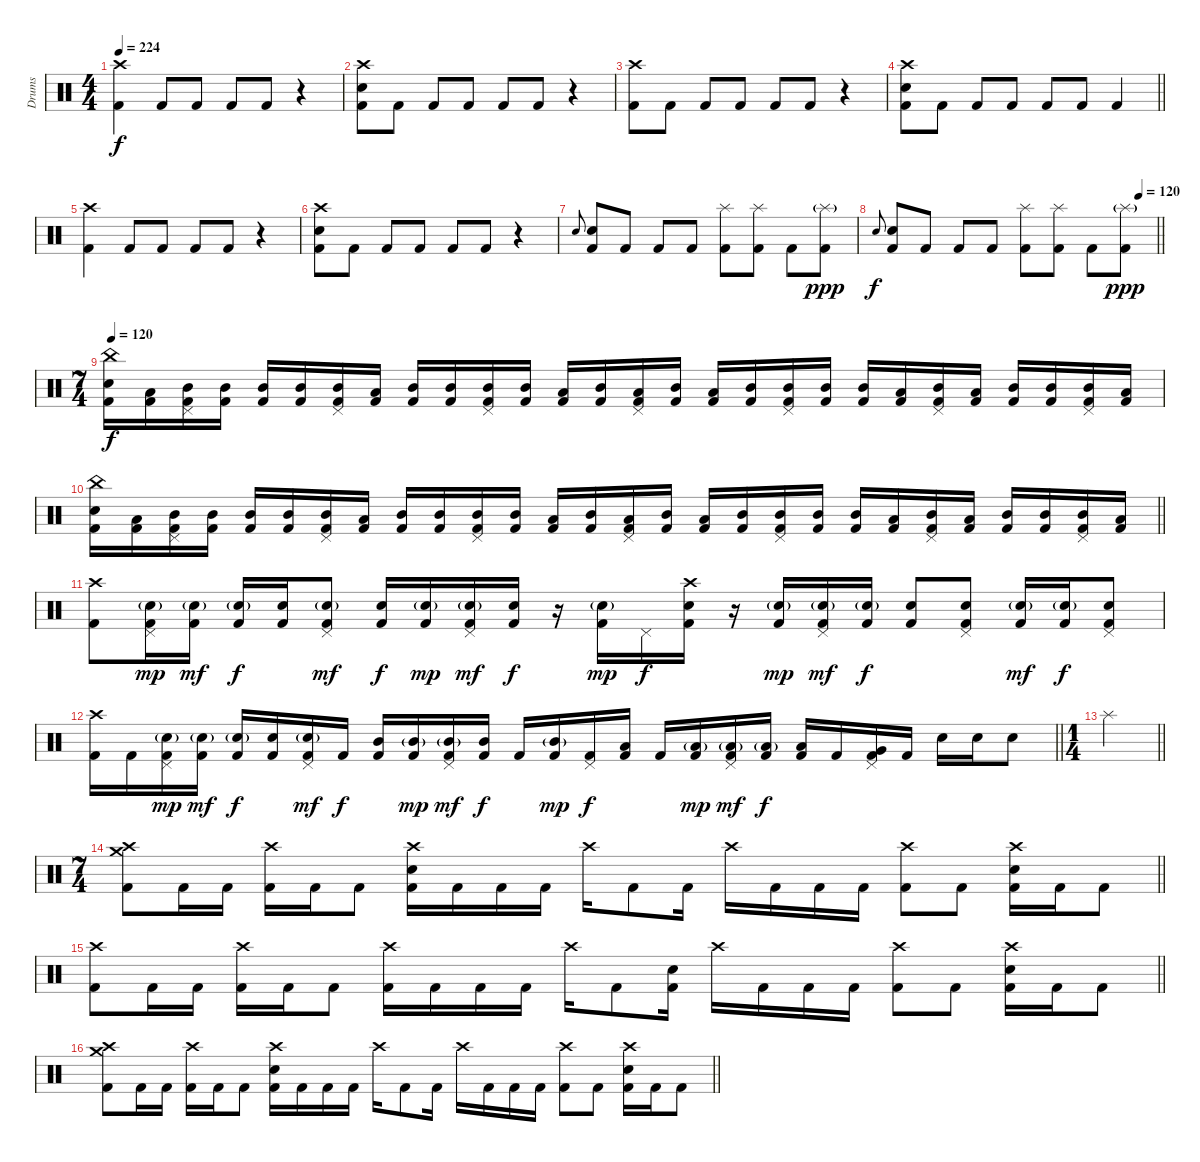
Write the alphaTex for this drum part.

\track ("Drums" "Drums") {instrument percussion}
\staff {score}
\articulation defaults
\ts (4 4)
\section ("" "")
\tempo 224
\clef neutral
\ks c
("Crash high (hit)" "Kick (hit) 2").4{dy f} "Kick (hit) 2".8 "Kick (hit) 2".8 "Kick (hit) 2".8 "Kick (hit) 2".8 r.4 |
("Crash high (hit)" "Electric Snare (hit)" "Kick (hit) 2").8 "Kick (hit) 2".8 "Kick (hit) 2".8 "Kick (hit) 2".8 "Kick (hit) 2".8 "Kick (hit) 2".8 r.4 |
("Crash high (hit)" "Kick (hit) 2").8 "Kick (hit) 2".8 "Kick (hit) 2".8 "Kick (hit) 2".8 "Kick (hit) 2".8 "Kick (hit) 2".8 r.4 |
\barLineRight lightlight
("Crash high (hit)" "Electric Snare (hit)" "Kick (hit) 2").8 "Kick (hit) 2".8 "Kick (hit) 2".8 "Kick (hit) 2".8 "Kick (hit) 2".8 "Kick (hit) 2".8 "Kick (hit) 2".4 |
("Crash high (hit)" "Kick (hit) 2").4 "Kick (hit) 2".8 "Kick (hit) 2".8 "Kick (hit) 2".8 "Kick (hit) 2".8 r.4 |
("Crash high (hit)" "Electric Snare (hit)" "Kick (hit) 2").8 "Kick (hit) 2".8 "Kick (hit) 2".8 "Kick (hit) 2".8 "Kick (hit) 2".8 "Kick (hit) 2".8 r.4 |
"Electric Snare (hit)".8{gr onbeat} ("Electric Snare (hit)" "Kick (hit) 2").8 "Kick (hit) 2".8 "Kick (hit) 2".8 "Kick (hit) 2".8 ("Splash (hit)" "Kick (hit) 2").8 ("Splash (hit)" "Kick (hit) 2").8 "Kick (hit) 2".8 ("Splash (hit)"{g} "Kick (hit) 2").8{dy ppp} |
\tempo (120 0.9375)
\barLineRight lightlight "Electric Snare (hit)".8{gr onbeat dy f}
("Electric Snare (hit)" "Kick (hit) 2").8 "Kick (hit) 2".8 "Kick (hit) 2".8 "Kick (hit) 2".8 ("Splash (hit)" "Kick (hit) 2").8 ("Splash (hit)" "Kick (hit) 2").8 "Kick (hit) 2".8 ("Splash (hit)"{g} "Kick (hit) 2").8{dy ppp} |
\ts (7 4)
\section ("" "")
\tempo 120
("China (hit)" "Electric Snare (hit)" "Kick (hit) 2").16{dy f} ("Low Tom (hit)" "Kick (hit) 2").16 ("Pedal Hi-Hat (hit)" "Mid Tom (hit)" "Kick (hit) 2").16 ("Mid Tom (hit)" "Kick (hit) 2").16 ("Mid Tom (hit)" "Kick (hit) 2").16 ("Mid Tom (hit)" "Kick (hit) 2").16 ("Pedal Hi-Hat (hit)" "Mid Tom (hit)" "Kick (hit) 2").16 ("Low Tom (hit)" "Kick (hit) 2").16 ("Mid Tom (hit)" "Kick (hit) 2").16 ("Mid Tom (hit)" "Kick (hit) 2").16 ("Pedal Hi-Hat (hit)" "Mid Tom (hit)" "Kick (hit) 2").16 ("Mid Tom (hit)" "Kick (hit) 2").16 ("Low Tom (hit)" "Kick (hit) 2").16 ("Mid Tom (hit)" "Kick (hit) 2").16 ("Pedal Hi-Hat (hit)" "Low Tom (hit)" "Kick (hit) 2").16 ("Mid Tom (hit)" "Kick (hit) 2").16 ("Low Tom (hit)" "Kick (hit) 2").16 ("Mid Tom (hit)" "Kick (hit) 2").16 ("Pedal Hi-Hat (hit)" "Mid Tom (hit)" "Kick (hit) 2").16 ("Mid Tom (hit)" "Kick (hit) 2").16 ("Mid Tom (hit)" "Kick (hit) 2").16 ("Low Tom (hit)" "Kick (hit) 2").16 ("Pedal Hi-Hat (hit)" "Mid Tom (hit)" "Kick (hit) 2").16 ("Low Tom (hit)" "Kick (hit) 2").16 ("Mid Tom (hit)" "Kick (hit) 2").16 ("Mid Tom (hit)" "Kick (hit) 2").16 ("Pedal Hi-Hat (hit)" "Mid Tom (hit)" "Kick (hit) 2").16 ("Low Tom (hit)" "Kick (hit) 2").16 |
\barLineRight lightlight
("China (hit)" "Electric Snare (hit)" "Kick (hit) 2").16 ("Low Tom (hit)" "Kick (hit) 2").16 ("Pedal Hi-Hat (hit)" "Mid Tom (hit)" "Kick (hit) 2").16 ("Mid Tom (hit)" "Kick (hit) 2").16 ("Mid Tom (hit)" "Kick (hit) 2").16 ("Mid Tom (hit)" "Kick (hit) 2").16 ("Pedal Hi-Hat (hit)" "Mid Tom (hit)" "Kick (hit) 2").16 ("Low Tom (hit)" "Kick (hit) 2").16 ("Mid Tom (hit)" "Kick (hit) 2").16 ("Mid Tom (hit)" "Kick (hit) 2").16 ("Pedal Hi-Hat (hit)" "Mid Tom (hit)" "Kick (hit) 2").16 ("Mid Tom (hit)" "Kick (hit) 2").16 ("Low Tom (hit)" "Kick (hit) 2").16 ("Mid Tom (hit)" "Kick (hit) 2").16 ("Pedal Hi-Hat (hit)" "Low Tom (hit)" "Kick (hit) 2").16 ("Mid Tom (hit)" "Kick (hit) 2").16 ("Low Tom (hit)" "Kick (hit) 2").16 ("Mid Tom (hit)" "Kick (hit) 2").16 ("Pedal Hi-Hat (hit)" "Mid Tom (hit)" "Kick (hit) 2").16 ("Mid Tom (hit)" "Kick (hit) 2").16 ("Mid Tom (hit)" "Kick (hit) 2").16 ("Low Tom (hit)" "Kick (hit) 2").16 ("Pedal Hi-Hat (hit)" "Mid Tom (hit)" "Kick (hit) 2").16 ("Low Tom (hit)" "Kick (hit) 2").16 ("Mid Tom (hit)" "Kick (hit) 2").16 ("Mid Tom (hit)" "Kick (hit) 2").16 ("Pedal Hi-Hat (hit)" "Mid Tom (hit)" "Kick (hit) 2").16 ("Low Tom (hit)" "Kick (hit) 2").16 |
("Crash high (hit)" "Kick (hit) 2").8 ("Pedal Hi-Hat (hit)" "Electric Snare (hit)"{g} "Kick (hit) 2").16{dy mp} ("Electric Snare (hit)"{g} "Kick (hit) 2").16{dy mf} ("Electric Snare (hit)"{g} "Kick (hit) 2").16{dy f} ("Electric Snare (hit)" "Kick (hit) 2").16 ("Pedal Hi-Hat (hit)" "Electric Snare (hit)"{g} "Kick (hit) 2").8{dy mf} ("Electric Snare (hit)" "Kick (hit) 2").16{dy f} ("Electric Snare (hit)"{g} "Kick (hit) 2").16{dy mp} ("Pedal Hi-Hat (hit)" "Electric Snare (hit)"{g} "Kick (hit) 2").16{dy mf} ("Electric Snare (hit)" "Kick (hit) 2").16{dy f} r.16 ("Electric Snare (hit)"{g} "Kick (hit) 2").16{dy mp} "Pedal Hi-Hat (hit)".16{dy f} ("Crash high (hit)" "Electric Snare (hit)" "Kick (hit) 2").16 r.16 ("Electric Snare (hit)"{g} "Kick (hit) 2").16{dy mp} ("Pedal Hi-Hat (hit)" "Electric Snare (hit)"{g} "Kick (hit) 2").16{dy mf} ("Electric Snare (hit)"{g} "Kick (hit) 2").16{dy f} ("Electric Snare (hit)" "Kick (hit) 2").8 ("Pedal Hi-Hat (hit)" "Electric Snare (hit)" "Kick (hit) 2").8 ("Electric Snare (hit)"{g} "Kick (hit) 2").16{dy mf} ("Electric Snare (hit)"{g} "Kick (hit) 2").16{dy f} ("Pedal Hi-Hat (hit)" "Electric Snare (hit)" "Kick (hit) 2").8 |
\barLineRight lightlight
("Crash high (hit)" "Kick (hit) 2").16 "Kick (hit) 2".16 ("Pedal Hi-Hat (hit)" "Electric Snare (hit)"{g} "Kick (hit) 2").16{dy mp} ("Electric Snare (hit)"{g} "Kick (hit) 2").16{dy mf} ("Electric Snare (hit)"{g} "Kick (hit) 2").16{dy f} ("Electric Snare (hit)" "Kick (hit) 2").16 ("Pedal Hi-Hat (hit)" "Electric Snare (hit)"{g} "Kick (hit) 2").16{dy mf} "Kick (hit) 2".16{dy f} ("Mid Tom (hit)" "Kick (hit) 2").16 ("Mid Tom (hit)"{g} "Kick (hit) 2").16{dy mp} ("Pedal Hi-Hat (hit)" "Mid Tom (hit)"{g} "Kick (hit) 2").16{dy mf} ("Mid Tom (hit)" "Kick (hit) 2").16{dy f} "Kick (hit) 2".16 ("Mid Tom (hit)"{g} "Kick (hit) 2").16{dy mp} ("Pedal Hi-Hat (hit)" "Kick (hit) 2").16{dy f} ("Low Tom (hit)" "Kick (hit) 2").16 "Kick (hit) 2".16 ("Low Tom (hit)"{g} "Kick (hit) 2").16{dy mp} ("Pedal Hi-Hat (hit)" "Low Tom (hit)"{g} "Kick (hit) 2").16{dy mf} ("Low Tom (hit)"{g} "Kick (hit) 2").16{dy f} ("Low Tom (hit)" "Kick (hit) 2").16 "Kick (hit) 2".16 ("Pedal Hi-Hat (hit)" "Very Low Tom (hit)" "Kick (hit) 2").16 "Kick (hit) 2".16 "Electric Snare (hit)".16 "Electric Snare (hit)".16 "Electric Snare (hit)".8 |
\ts (1 4)
\barLineRight lightlight "Splash (hit)".4
|
\ts (7 4)
\section ("" "")
\barLineRight lightlight
("Crash high (hit)" "Crash medium (hit)" "Kick (hit) 2").8 "Kick (hit) 2".16 "Kick (hit) 2".16 ("Crash high (hit)" "Kick (hit) 2").16 "Kick (hit) 2".16 "Kick (hit) 2".8 ("Crash high (hit)" "Electric Snare (hit)" "Kick (hit) 2").16 "Kick (hit) 2".16 "Kick (hit) 2".16 "Kick (hit) 2".16 "Crash high (hit)".16 "Kick (hit) 2".8 "Kick (hit) 2".16 "Crash high (hit)".16 "Kick (hit) 2".16 "Kick (hit) 2".16 "Kick (hit) 2".16 ("Crash high (hit)" "Kick (hit) 2").8 "Kick (hit) 2".8 ("Crash high (hit)" "Electric Snare (hit)" "Kick (hit) 2").16 "Kick (hit) 2".16 "Kick (hit) 2".8 |
\barLineRight lightlight
("Crash high (hit)" "Kick (hit) 2").8 "Kick (hit) 2".16 "Kick (hit) 2".16 ("Crash high (hit)" "Kick (hit) 2").16 "Kick (hit) 2".16 "Kick (hit) 2".8 ("Crash high (hit)" "Kick (hit) 2").16 "Kick (hit) 2".16 "Kick (hit) 2".16 "Kick (hit) 2".16 "Crash high (hit)".16 "Kick (hit) 2".8 ("Electric Snare (hit)" "Kick (hit) 2").16 "Crash high (hit)".16 "Kick (hit) 2".16 "Kick (hit) 2".16 "Kick (hit) 2".16 ("Crash high (hit)" "Kick (hit) 2").8 "Kick (hit) 2".8 ("Crash high (hit)" "Electric Snare (hit)" "Kick (hit) 2").16 "Kick (hit) 2".16 "Kick (hit) 2".8 |
\barLineRight lightlight
("Crash high (hit)" "Crash medium (hit)" "Kick (hit) 2").8 "Kick (hit) 2".16 "Kick (hit) 2".16 ("Crash high (hit)" "Kick (hit) 2").16 "Kick (hit) 2".16 "Kick (hit) 2".8 ("Crash high (hit)" "Electric Snare (hit)" "Kick (hit) 2").16 "Kick (hit) 2".16 "Kick (hit) 2".16 "Kick (hit) 2".16 "Crash high (hit)".16 "Kick (hit) 2".8 "Kick (hit) 2".16 "Crash high (hit)".16 "Kick (hit) 2".16 "Kick (hit) 2".16 "Kick (hit) 2".16 ("Crash high (hit)" "Kick (hit) 2").8 "Kick (hit) 2".8 ("Crash high (hit)" "Electric Snare (hit)" "Kick (hit) 2").16 "Kick (hit) 2".16 "Kick (hit) 2".8
